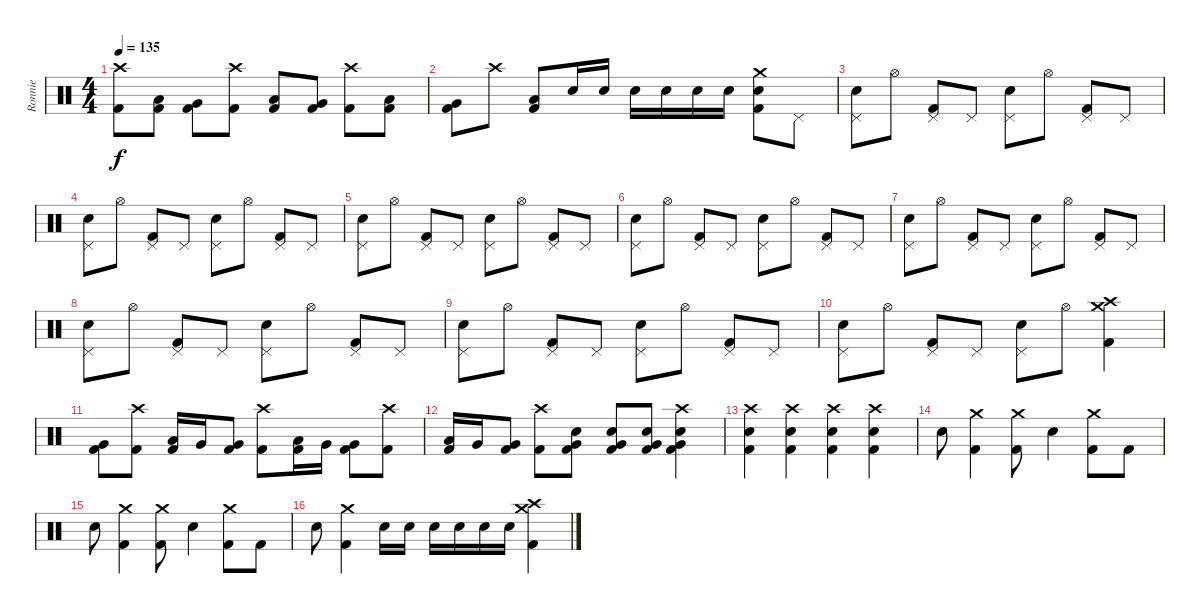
\track ("Ronnie" "Ronnie") {instrument percussion}
\staff {score}
\articulation defaults
\ts (4 4)
\tempo 135
\clef neutral
\ks c
("Crash high (hit)" "Kick (hit) 2").8{dy f} ("Kick (hit) 2" "Low Tom (hit)").8 ("Kick (hit) 2" "Very Low Tom (hit)").8 ("Crash high (hit)" "Kick (hit) 2").8 ("Kick (hit) 2" "Low Tom (hit)").8 ("Kick (hit) 2" "Very Low Tom (hit)").8 ("Crash high (hit)" "Kick (hit) 2").8 ("Kick (hit) 2" "Low Tom (hit)").8 |
("Kick (hit) 2" "Very Low Tom (hit)").8 "Crash high (hit)".8 ("Kick (hit) 2" "Low Tom (hit)").8 "Electric Snare (hit)".16 "Electric Snare (hit)".16 "Electric Snare (hit)".16 "Electric Snare (hit)".16 "Electric Snare (hit)".16 "Electric Snare (hit)".16 ("Electric Snare (hit)" "Kick (hit) 2" "Crash medium (hit)").8 "Pedal Hi-Hat (hit)".8 |
("Pedal Hi-Hat (hit)" "Electric Snare (hit)").8 "Hi-Hat (open)".8 ("Pedal Hi-Hat (hit)" "Kick (hit) 2").8 "Pedal Hi-Hat (hit)".8 ("Pedal Hi-Hat (hit)" "Electric Snare (hit)").8 "Hi-Hat (open)".8 ("Pedal Hi-Hat (hit)" "Kick (hit) 2").8 "Pedal Hi-Hat (hit)".8 |
("Pedal Hi-Hat (hit)" "Electric Snare (hit)").8 "Hi-Hat (open)".8 ("Pedal Hi-Hat (hit)" "Kick (hit) 2").8 "Pedal Hi-Hat (hit)".8 ("Pedal Hi-Hat (hit)" "Electric Snare (hit)").8 "Hi-Hat (open)".8 ("Pedal Hi-Hat (hit)" "Kick (hit) 2").8 "Pedal Hi-Hat (hit)".8 |
("Pedal Hi-Hat (hit)" "Electric Snare (hit)").8 "Hi-Hat (open)".8 ("Pedal Hi-Hat (hit)" "Kick (hit) 2").8 "Pedal Hi-Hat (hit)".8 ("Pedal Hi-Hat (hit)" "Electric Snare (hit)").8 "Hi-Hat (open)".8 ("Pedal Hi-Hat (hit)" "Kick (hit) 2").8 "Pedal Hi-Hat (hit)".8 |
("Pedal Hi-Hat (hit)" "Electric Snare (hit)").8 "Hi-Hat (open)".8 ("Pedal Hi-Hat (hit)" "Kick (hit) 2").8 "Pedal Hi-Hat (hit)".8 ("Pedal Hi-Hat (hit)" "Electric Snare (hit)").8 "Hi-Hat (open)".8 ("Pedal Hi-Hat (hit)" "Kick (hit) 2").8 "Pedal Hi-Hat (hit)".8 |
("Pedal Hi-Hat (hit)" "Electric Snare (hit)").8 "Hi-Hat (open)".8 ("Pedal Hi-Hat (hit)" "Kick (hit) 2").8 "Pedal Hi-Hat (hit)".8 ("Pedal Hi-Hat (hit)" "Electric Snare (hit)").8 "Hi-Hat (open)".8 ("Pedal Hi-Hat (hit)" "Kick (hit) 2").8 "Pedal Hi-Hat (hit)".8 |
("Pedal Hi-Hat (hit)" "Electric Snare (hit)").8 "Hi-Hat (open)".8 ("Pedal Hi-Hat (hit)" "Kick (hit) 2").8 "Pedal Hi-Hat (hit)".8 ("Pedal Hi-Hat (hit)" "Electric Snare (hit)").8 "Hi-Hat (open)".8 ("Pedal Hi-Hat (hit)" "Kick (hit) 2").8 "Pedal Hi-Hat (hit)".8 |
("Pedal Hi-Hat (hit)" "Electric Snare (hit)").8 "Hi-Hat (open)".8 ("Pedal Hi-Hat (hit)" "Kick (hit) 2").8 "Pedal Hi-Hat (hit)".8 ("Pedal Hi-Hat (hit)" "Electric Snare (hit)").8 "Hi-Hat (open)".8 ("Pedal Hi-Hat (hit)" "Kick (hit) 2").8 "Pedal Hi-Hat (hit)".8 |
("Pedal Hi-Hat (hit)" "Electric Snare (hit)").8 "Hi-Hat (open)".8 ("Pedal Hi-Hat (hit)" "Kick (hit) 2").8 "Pedal Hi-Hat (hit)".8 ("Pedal Hi-Hat (hit)" "Electric Snare (hit)").8 "Hi-Hat (open)".8 ("Kick (hit) 2" "Crash high (hit)" "Crash medium (hit)").4 |
("Very Low Tom (hit)" "Kick (hit) 2").8 ("Crash high (hit)" "Kick (hit) 2").8 ("Low Tom (hit)" "Kick (hit) 2").16 "Very Low Tom (hit)".16 ("Very Low Tom (hit)" "Kick (hit) 2").8 ("Crash high (hit)" "Kick (hit) 2").8 ("Low Tom (hit)" "Kick (hit) 2").16 "Very Low Tom (hit)".16 ("Very Low Tom (hit)" "Kick (hit) 2").8 ("Crash high (hit)" "Kick (hit) 2").8 |
("Low Tom (hit)" "Kick (hit) 2").16 "Very Low Tom (hit)".16 ("Very Low Tom (hit)" "Kick (hit) 2").8 ("Crash high (hit)" "Kick (hit) 2").8 ("Electric Snare (hit)" "Kick (hit) 2" "Very Low Tom (hit)").8 ("Electric Snare (hit)" "Kick (hit) 2" "Very Low Tom (hit)").8 ("Electric Snare (hit)" "Kick (hit) 2" "Very Low Tom (hit)").8 ("Electric Snare (hit)" "Kick (hit) 2" "Very Low Tom (hit)" "Crash high (hit)").4 |
("Electric Snare (hit)" "Kick (hit) 2" "Crash high (hit)").4 ("Electric Snare (hit)" "Kick (hit) 2" "Crash high (hit)").4 ("Electric Snare (hit)" "Kick (hit) 2" "Crash high (hit)").4 ("Electric Snare (hit)" "Kick (hit) 2" "Crash high (hit)").4 |
"Electric Snare (hit)".8 ("Kick (hit) 2" "Crash medium (hit)").4 ("Kick (hit) 2" "Crash medium (hit)").8 "Electric Snare (hit)".4 ("Kick (hit) 2" "Crash medium (hit)").8 "Kick (hit) 2".8 |
"Electric Snare (hit)".8 ("Kick (hit) 2" "Crash medium (hit)").4 ("Kick (hit) 2" "Crash medium (hit)").8 "Electric Snare (hit)".4 ("Kick (hit) 2" "Crash medium (hit)").8 "Kick (hit) 2".8 |
"Electric Snare (hit)".8 ("Kick (hit) 2" "Crash medium (hit)").4 "Electric Snare (hit)".16 "Electric Snare (hit)".16 "Electric Snare (hit)".16 "Electric Snare (hit)".16 "Electric Snare (hit)".16 "Electric Snare (hit)".16 ("Crash high (hit)" "Kick (hit) 2" "Crash medium (hit)").4
